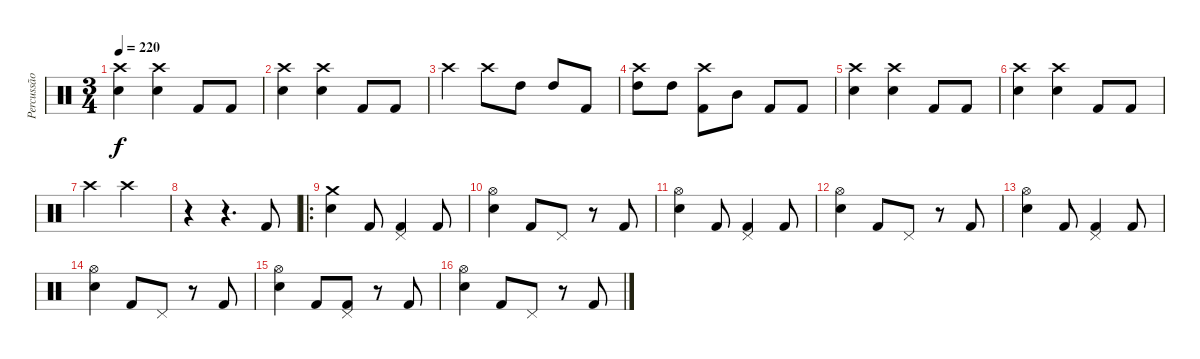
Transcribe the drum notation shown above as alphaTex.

\track ("Percussão" "Percussão") {instrument percussion}
\staff {score}
\articulation defaults
\ts (3 4)
\tempo 220
\clef neutral
\ks c
("Crash high (hit)" "Snare (hit) 2").4{dy f} ("Crash high (hit)" "Snare (hit) 2").4 "Kick (hit) 2".8 "Kick (hit) 2".8 |
("Crash high (hit)" "Snare (hit) 2").4 ("Crash high (hit)" "Snare (hit) 2").4 "Kick (hit) 2".8 "Kick (hit) 2".8 |
"Crash high (hit)".4 "Crash high (hit)".8 "High Tom (hit)".8 "High Tom (hit)".8 "Kick (hit) 2".8 |
("Crash high (hit)" "High Tom (hit)").8 "High Tom (hit)".8 ("Crash high (hit)" "Kick (hit) 2").8 "Mid Tom (hit)".8 "Kick (hit) 2".8 "Kick (hit) 2".8 |
("Crash high (hit)" "Snare (hit) 2").4 ("Crash high (hit)" "Snare (hit) 2").4 "Kick (hit) 2".8 "Kick (hit) 2".8 |
("Crash high (hit)" "Snare (hit) 2").4 ("Crash high (hit)" "Snare (hit) 2").4 "Kick (hit) 2".8 "Kick (hit) 2".8 |
"Crash high (hit)".4 "Crash high (hit)".2 |
r.4 r.4{d} "Kick (hit) 2".8 |
\ro
("Crash medium (hit)" "Snare (hit) 2").4 "Kick (hit) 2".8 ("Pedal Hi-Hat (hit)" "Kick (hit) 2").4 "Kick (hit) 2".8 |
("Hi-Hat (open)" "Snare (hit) 2").4 "Kick (hit) 2".8 "Pedal Hi-Hat (hit)".8 r.8 "Kick (hit) 2".8 |
("Hi-Hat (open)" "Snare (hit) 2").4 "Kick (hit) 2".8 ("Pedal Hi-Hat (hit)" "Kick (hit) 2").4 "Kick (hit) 2".8 |
("Hi-Hat (open)" "Snare (hit) 2").4 "Kick (hit) 2".8 "Pedal Hi-Hat (hit)".8 r.8 "Kick (hit) 2".8 |
("Hi-Hat (open)" "Snare (hit) 2").4 "Kick (hit) 2".8 ("Pedal Hi-Hat (hit)" "Kick (hit) 2").4 "Kick (hit) 2".8 |
("Hi-Hat (open)" "Snare (hit) 2").4 "Kick (hit) 2".8 "Pedal Hi-Hat (hit)".8 r.8 "Kick (hit) 2".8 |
("Hi-Hat (open)" "Snare (hit) 2").4 "Kick (hit) 2".8 ("Pedal Hi-Hat (hit)" "Kick (hit) 2").8 r.8 "Kick (hit) 2".8 |
("Hi-Hat (open)" "Snare (hit) 2").4 "Kick (hit) 2".8 "Pedal Hi-Hat (hit)".8 r.8 "Kick (hit) 2".8
